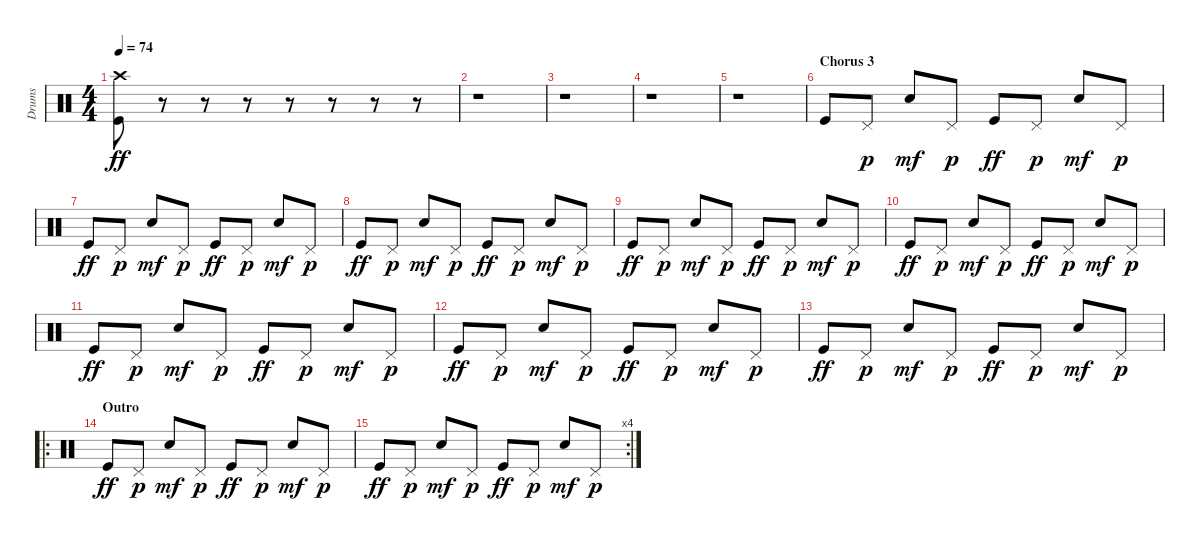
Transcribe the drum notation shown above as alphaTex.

\track ("Drums" "Drums") {instrument percussion}
\staff {score}
\articulation defaults
\ts (4 4)
\tempo 74
\clef neutral
\ks c
("Crash high (hit)" "Kick (hit)").8{dy ff} r.8 r.8 r.8 r.8 r.8 r.8 r.8 |
r.1 |
r.1 |
r.1 |
r.1 |
\section ("" "Chorus 3")
"Kick (hit)".8 "Pedal Hi-Hat (hit)".8{dy p} "Electric Snare (hit)".8{dy mf} "Pedal Hi-Hat (hit)".8{dy p} "Kick (hit)".8{dy ff} "Pedal Hi-Hat (hit)".8{dy p} "Electric Snare (hit)".8{dy mf} "Pedal Hi-Hat (hit)".8{dy p} |
"Kick (hit)".8{dy ff} "Pedal Hi-Hat (hit)".8{dy p} "Electric Snare (hit)".8{dy mf} "Pedal Hi-Hat (hit)".8{dy p} "Kick (hit)".8{dy ff} "Pedal Hi-Hat (hit)".8{dy p} "Electric Snare (hit)".8{dy mf} "Pedal Hi-Hat (hit)".8{dy p} |
"Kick (hit)".8{dy ff} "Pedal Hi-Hat (hit)".8{dy p} "Electric Snare (hit)".8{dy mf} "Pedal Hi-Hat (hit)".8{dy p} "Kick (hit)".8{dy ff} "Pedal Hi-Hat (hit)".8{dy p} "Electric Snare (hit)".8{dy mf} "Pedal Hi-Hat (hit)".8{dy p} |
"Kick (hit)".8{dy ff} "Pedal Hi-Hat (hit)".8{dy p} "Electric Snare (hit)".8{dy mf} "Pedal Hi-Hat (hit)".8{dy p} "Kick (hit)".8{dy ff} "Pedal Hi-Hat (hit)".8{dy p} "Electric Snare (hit)".8{dy mf} "Pedal Hi-Hat (hit)".8{dy p} |
"Kick (hit)".8{dy ff} "Pedal Hi-Hat (hit)".8{dy p} "Electric Snare (hit)".8{dy mf} "Pedal Hi-Hat (hit)".8{dy p} "Kick (hit)".8{dy ff} "Pedal Hi-Hat (hit)".8{dy p} "Electric Snare (hit)".8{dy mf} "Pedal Hi-Hat (hit)".8{dy p} |
"Kick (hit)".8{dy ff} "Pedal Hi-Hat (hit)".8{dy p} "Electric Snare (hit)".8{dy mf} "Pedal Hi-Hat (hit)".8{dy p} "Kick (hit)".8{dy ff} "Pedal Hi-Hat (hit)".8{dy p} "Electric Snare (hit)".8{dy mf} "Pedal Hi-Hat (hit)".8{dy p} |
"Kick (hit)".8{dy ff} "Pedal Hi-Hat (hit)".8{dy p} "Electric Snare (hit)".8{dy mf} "Pedal Hi-Hat (hit)".8{dy p} "Kick (hit)".8{dy ff} "Pedal Hi-Hat (hit)".8{dy p} "Electric Snare (hit)".8{dy mf} "Pedal Hi-Hat (hit)".8{dy p} |
"Kick (hit)".8{dy ff} "Pedal Hi-Hat (hit)".8{dy p} "Electric Snare (hit)".8{dy mf} "Pedal Hi-Hat (hit)".8{dy p} "Kick (hit)".8{dy ff} "Pedal Hi-Hat (hit)".8{dy p} "Electric Snare (hit)".8{dy mf} "Pedal Hi-Hat (hit)".8{dy p} |
\ro
\section ("" "Outro")
"Kick (hit)".8{dy ff} "Pedal Hi-Hat (hit)".8{dy p} "Electric Snare (hit)".8{dy mf} "Pedal Hi-Hat (hit)".8{dy p} "Kick (hit)".8{dy ff} "Pedal Hi-Hat (hit)".8{dy p} "Electric Snare (hit)".8{dy mf} "Pedal Hi-Hat (hit)".8{dy p} |
\rc 4 "Kick (hit)".8{dy ff} "Pedal Hi-Hat (hit)".8{dy p} "Electric Snare (hit)".8{dy mf} "Pedal Hi-Hat (hit)".8{dy p} "Kick (hit)".8{dy ff} "Pedal Hi-Hat (hit)".8{dy p} "Electric Snare (hit)".8{dy mf} "Pedal Hi-Hat (hit)".8{dy p}
